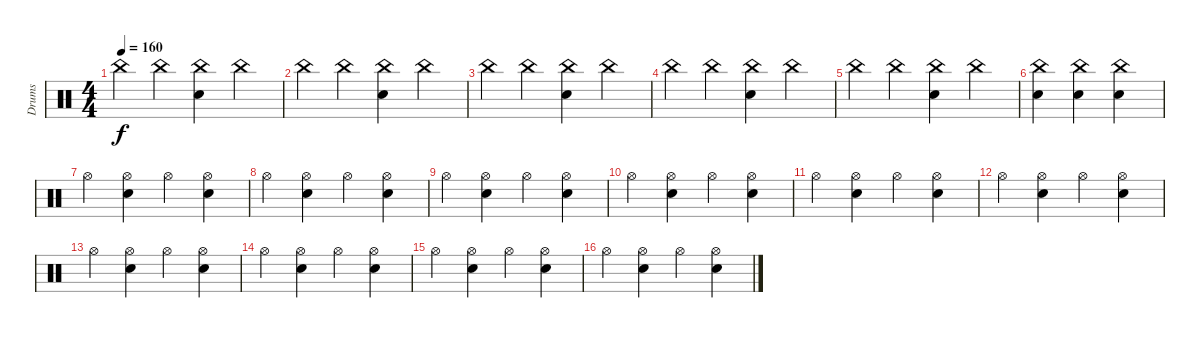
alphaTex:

\track ("Drums" "Drums") {instrument percussion}
\staff {score}
\articulation defaults
\ts (4 4)
\tempo 160
\clef neutral
\ks c "China (hit)".4{dy f} "China (hit)".4
("China (hit)" "Electric Snare (hit)").4 "China (hit)".4 |
"China (hit)".4 "China (hit)".4 ("China (hit)" "Electric Snare (hit)").4 "China (hit)".4 |
"China (hit)".4 "China (hit)".4 ("China (hit)" "Electric Snare (hit)").4 "China (hit)".4 |
"China (hit)".4 "China (hit)".4 ("China (hit)" "Electric Snare (hit)").4 "China (hit)".4 |
"China (hit)".4 "China (hit)".4 ("China (hit)" "Electric Snare (hit)").4 "China (hit)".4 |
("China (hit)" "Electric Snare (hit)").4 ("China (hit)" "Electric Snare (hit)").4 ("China (hit)" "Electric Snare (hit)").4 |
"Hi-Hat (open)".4 ("Hi-Hat (open)" "Electric Snare (hit)").4 "Hi-Hat (open)".4 ("Hi-Hat (open)" "Electric Snare (hit)").4 |
"Hi-Hat (open)".4 ("Hi-Hat (open)" "Electric Snare (hit)").4 "Hi-Hat (open)".4 ("Hi-Hat (open)" "Electric Snare (hit)").4 |
"Hi-Hat (open)".4 ("Hi-Hat (open)" "Electric Snare (hit)").4 "Hi-Hat (open)".4 ("Hi-Hat (open)" "Electric Snare (hit)").4 |
"Hi-Hat (open)".4 ("Hi-Hat (open)" "Electric Snare (hit)").4 "Hi-Hat (open)".4 ("Hi-Hat (open)" "Electric Snare (hit)").4 |
"Hi-Hat (open)".4 ("Hi-Hat (open)" "Electric Snare (hit)").4 "Hi-Hat (open)".4 ("Hi-Hat (open)" "Electric Snare (hit)").4 |
"Hi-Hat (open)".4 ("Hi-Hat (open)" "Electric Snare (hit)").4 "Hi-Hat (open)".4 ("Hi-Hat (open)" "Electric Snare (hit)").4 |
"Hi-Hat (open)".4 ("Hi-Hat (open)" "Electric Snare (hit)").4 "Hi-Hat (open)".4 ("Hi-Hat (open)" "Electric Snare (hit)").4 |
"Hi-Hat (open)".4 ("Hi-Hat (open)" "Electric Snare (hit)").4 "Hi-Hat (open)".4 ("Hi-Hat (open)" "Electric Snare (hit)").4 |
"Hi-Hat (open)".4 ("Hi-Hat (open)" "Electric Snare (hit)").4 "Hi-Hat (open)".4 ("Hi-Hat (open)" "Electric Snare (hit)").4 |
"Hi-Hat (open)".4 ("Hi-Hat (open)" "Electric Snare (hit)").4 "Hi-Hat (open)".4 ("Hi-Hat (open)" "Electric Snare (hit)").4
